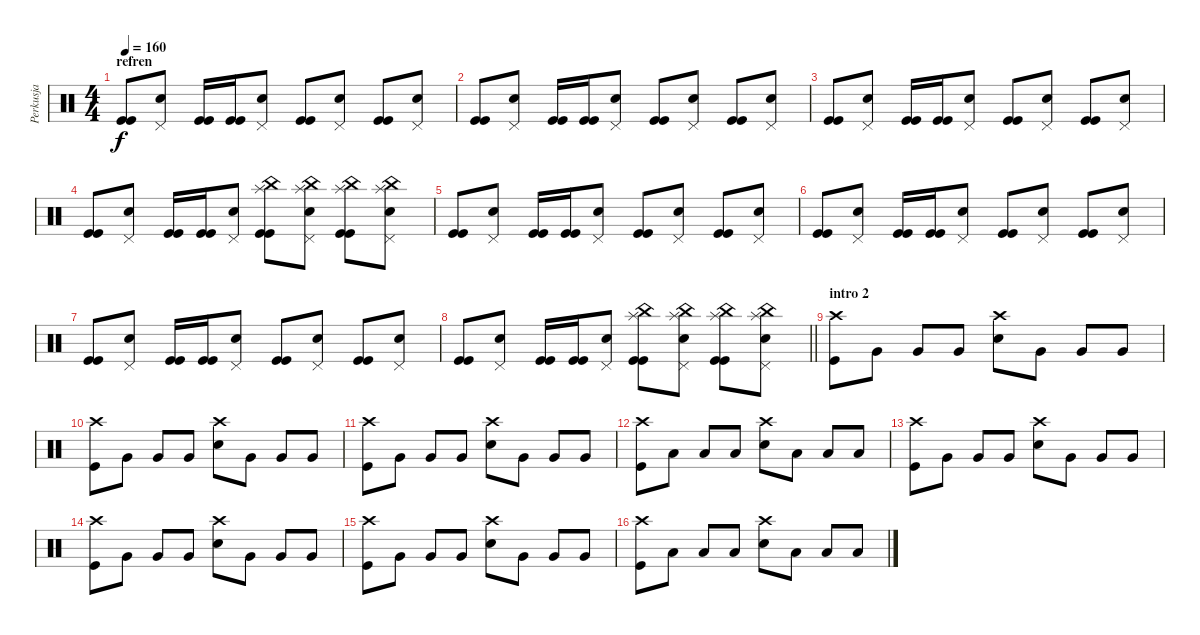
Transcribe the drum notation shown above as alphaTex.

\track ("Perkusja" "Perkusja") {instrument percussion}
\staff {score}
\articulation defaults
\ts (4 4)
\section ("" "refren")
\tempo 160
\clef neutral
\ks c
("Kick (hit)" "Kick (hit)").8{dy f} ("Pedal Hi-Hat (hit)" "Snare (hit) 2").8 ("Kick (hit)" "Kick (hit)").16 ("Kick (hit)" "Kick (hit)").16 ("Pedal Hi-Hat (hit)" "Snare (hit) 2").8 ("Kick (hit)" "Kick (hit)").8 ("Pedal Hi-Hat (hit)" "Snare (hit) 2").8 ("Kick (hit)" "Kick (hit)").8 ("Pedal Hi-Hat (hit)" "Snare (hit) 2").8 |
("Kick (hit)" "Kick (hit)").8 ("Pedal Hi-Hat (hit)" "Snare (hit) 2").8 ("Kick (hit)" "Kick (hit)").16 ("Kick (hit)" "Kick (hit)").16 ("Pedal Hi-Hat (hit)" "Snare (hit) 2").8 ("Kick (hit)" "Kick (hit)").8 ("Pedal Hi-Hat (hit)" "Snare (hit) 2").8 ("Kick (hit)" "Kick (hit)").8 ("Pedal Hi-Hat (hit)" "Snare (hit) 2").8 |
("Kick (hit)" "Kick (hit)").8 ("Pedal Hi-Hat (hit)" "Snare (hit) 2").8 ("Kick (hit)" "Kick (hit)").16 ("Kick (hit)" "Kick (hit)").16 ("Pedal Hi-Hat (hit)" "Snare (hit) 2").8 ("Kick (hit)" "Kick (hit)").8 ("Pedal Hi-Hat (hit)" "Snare (hit) 2").8 ("Kick (hit)" "Kick (hit)").8 ("Pedal Hi-Hat (hit)" "Snare (hit) 2").8 |
("Kick (hit)" "Kick (hit)").8 ("Pedal Hi-Hat (hit)" "Snare (hit) 2").8 ("Kick (hit)" "Kick (hit)").16 ("Kick (hit)" "Kick (hit)").16 ("Pedal Hi-Hat (hit)" "Snare (hit) 2").8 ("China (hit)" "Splash (hit)" "Kick (hit)" "Kick (hit)").8 ("China (hit)" "Splash (hit)" "Pedal Hi-Hat (hit)" "Snare (hit) 2").8 ("China (hit)" "Splash (hit)" "Kick (hit)" "Kick (hit)").8 ("China (hit)" "Splash (hit)" "Pedal Hi-Hat (hit)" "Snare (hit) 2").8 |
("Kick (hit)" "Kick (hit)").8 ("Pedal Hi-Hat (hit)" "Snare (hit) 2").8 ("Kick (hit)" "Kick (hit)").16 ("Kick (hit)" "Kick (hit)").16 ("Pedal Hi-Hat (hit)" "Snare (hit) 2").8 ("Kick (hit)" "Kick (hit)").8 ("Pedal Hi-Hat (hit)" "Snare (hit) 2").8 ("Kick (hit)" "Kick (hit)").8 ("Pedal Hi-Hat (hit)" "Snare (hit) 2").8 |
("Kick (hit)" "Kick (hit)").8 ("Pedal Hi-Hat (hit)" "Snare (hit) 2").8 ("Kick (hit)" "Kick (hit)").16 ("Kick (hit)" "Kick (hit)").16 ("Pedal Hi-Hat (hit)" "Snare (hit) 2").8 ("Kick (hit)" "Kick (hit)").8 ("Pedal Hi-Hat (hit)" "Snare (hit) 2").8 ("Kick (hit)" "Kick (hit)").8 ("Pedal Hi-Hat (hit)" "Snare (hit) 2").8 |
("Kick (hit)" "Kick (hit)").8 ("Pedal Hi-Hat (hit)" "Snare (hit) 2").8 ("Kick (hit)" "Kick (hit)").16 ("Kick (hit)" "Kick (hit)").16 ("Pedal Hi-Hat (hit)" "Snare (hit) 2").8 ("Kick (hit)" "Kick (hit)").8 ("Pedal Hi-Hat (hit)" "Snare (hit) 2").8 ("Kick (hit)" "Kick (hit)").8 ("Pedal Hi-Hat (hit)" "Snare (hit) 2").8 |
\barLineRight lightlight
("Kick (hit)" "Kick (hit)").8 ("Pedal Hi-Hat (hit)" "Snare (hit) 2").8 ("Kick (hit)" "Kick (hit)").16 ("Kick (hit)" "Kick (hit)").16 ("Pedal Hi-Hat (hit)" "Snare (hit) 2").8 ("China (hit)" "Splash (hit)" "Kick (hit)" "Kick (hit)").8 ("China (hit)" "Splash (hit)" "Pedal Hi-Hat (hit)" "Snare (hit) 2").8 ("China (hit)" "Splash (hit)" "Kick (hit)" "Kick (hit)").8 ("China (hit)" "Splash (hit)" "Pedal Hi-Hat (hit)" "Snare (hit) 2").8 |
\section ("" "intro 2")
("Crash high (hit)" "Kick (hit)").8 "Very Low Tom (hit)".8 "Very Low Tom (hit)".8 "Very Low Tom (hit)".8 ("Crash high (hit)" "Electric Snare (hit)").8 "Very Low Tom (hit)".8 "Very Low Tom (hit)".8 "Very Low Tom (hit)".8 |
("Crash high (hit)" "Kick (hit)").8 "Very Low Tom (hit)".8 "Very Low Tom (hit)".8 "Very Low Tom (hit)".8 ("Crash high (hit)" "Electric Snare (hit)").8 "Very Low Tom (hit)".8 "Very Low Tom (hit)".8 "Very Low Tom (hit)".8 |
("Crash high (hit)" "Kick (hit)").8 "Very Low Tom (hit)".8 "Very Low Tom (hit)".8 "Very Low Tom (hit)".8 ("Crash high (hit)" "Electric Snare (hit)").8 "Very Low Tom (hit)".8 "Very Low Tom (hit)".8 "Very Low Tom (hit)".8 |
("Crash high (hit)" "Kick (hit)").8 "Low Floor Tom (hit)".8 "Low Floor Tom (hit)".8 "Low Floor Tom (hit)".8 ("Crash high (hit)" "Electric Snare (hit)").8 "Low Floor Tom (hit)".8 "Low Floor Tom (hit)".8 "Low Floor Tom (hit)".8 |
("Crash high (hit)" "Kick (hit)").8 "Very Low Tom (hit)".8 "Very Low Tom (hit)".8 "Very Low Tom (hit)".8 ("Crash high (hit)" "Electric Snare (hit)").8 "Very Low Tom (hit)".8 "Very Low Tom (hit)".8 "Very Low Tom (hit)".8 |
("Crash high (hit)" "Kick (hit)").8 "Very Low Tom (hit)".8 "Very Low Tom (hit)".8 "Very Low Tom (hit)".8 ("Crash high (hit)" "Electric Snare (hit)").8 "Very Low Tom (hit)".8 "Very Low Tom (hit)".8 "Very Low Tom (hit)".8 |
("Crash high (hit)" "Kick (hit)").8 "Very Low Tom (hit)".8 "Very Low Tom (hit)".8 "Very Low Tom (hit)".8 ("Crash high (hit)" "Electric Snare (hit)").8 "Very Low Tom (hit)".8 "Very Low Tom (hit)".8 "Very Low Tom (hit)".8 |
("Crash high (hit)" "Kick (hit)").8 "Low Floor Tom (hit)".8 "Low Floor Tom (hit)".8 "Low Floor Tom (hit)".8 ("Crash high (hit)" "Electric Snare (hit)").8 "Low Floor Tom (hit)".8 "Low Floor Tom (hit)".8 "Low Floor Tom (hit)".8
